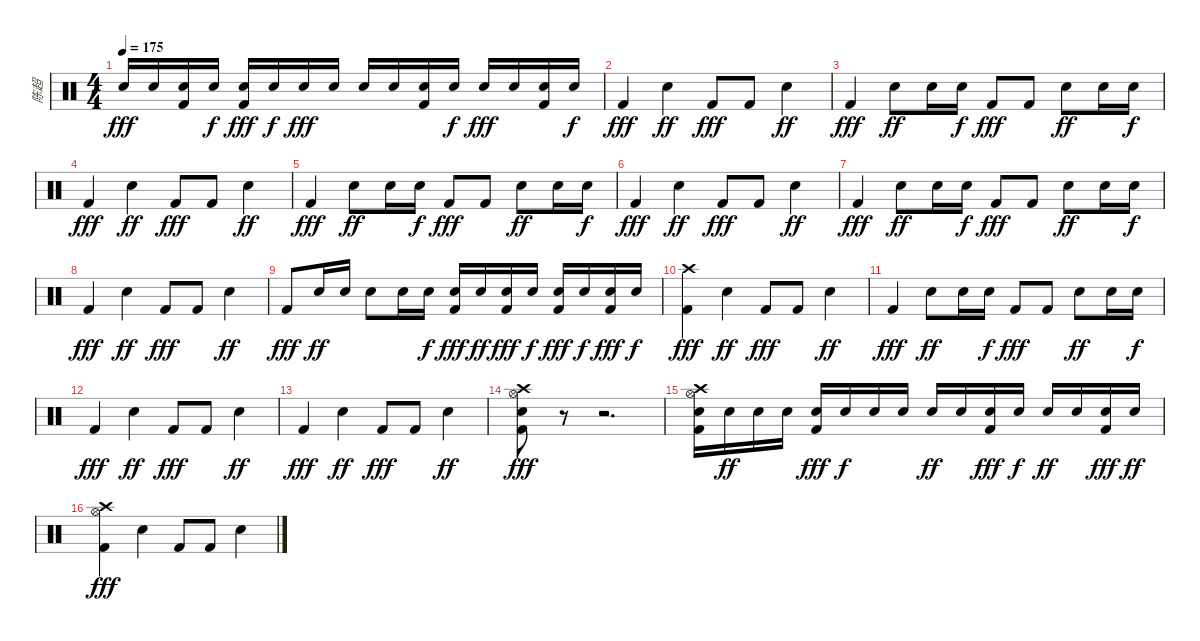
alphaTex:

\track ("陈超" "陈超") {instrument percussion}
\staff {score}
\articulation defaults
\ts (4 4)
\tempo 175
\clef neutral
\ks c "Electric Snare (hit)".16{dy fff} "Electric Snare (hit)".16
("Snare (hit) 2" "Kick (hit) 2").16 "Snare (hit) 2".16{dy f} ("Snare (hit) 2" "Kick (hit) 2").16{dy fff} "Snare (hit) 2".16{dy f} "Electric Snare (hit)".16{dy fff} "Electric Snare (hit)".16 "Electric Snare (hit)".16 "Electric Snare (hit)".16 ("Snare (hit) 2" "Kick (hit) 2").16 "Snare (hit) 2".16{dy f} "Electric Snare (hit)".16{dy fff} "Electric Snare (hit)".16 ("Snare (hit) 2" "Kick (hit) 2").16 "Snare (hit) 2".16{dy f} |
"Kick (hit) 2".4{dy fff} "Electric Snare (hit)".4{dy ff} "Kick (hit) 2".8{dy fff} "Kick (hit) 2".8 "Electric Snare (hit)".4{dy ff} |
"Kick (hit) 2".4{dy fff} "Electric Snare (hit)".8{dy ff} "Electric Snare (hit)".16 "Snare (hit) 2".16{dy f} "Kick (hit) 2".8{dy fff} "Kick (hit) 2".8 "Electric Snare (hit)".8{dy ff} "Electric Snare (hit)".16 "Snare (hit) 2".16{dy f} |
"Kick (hit) 2".4{dy fff} "Electric Snare (hit)".4{dy ff} "Kick (hit) 2".8{dy fff} "Kick (hit) 2".8 "Electric Snare (hit)".4{dy ff} |
"Kick (hit) 2".4{dy fff} "Electric Snare (hit)".8{dy ff} "Electric Snare (hit)".16 "Snare (hit) 2".16{dy f} "Kick (hit) 2".8{dy fff} "Kick (hit) 2".8 "Electric Snare (hit)".8{dy ff} "Electric Snare (hit)".16 "Snare (hit) 2".16{dy f} |
"Kick (hit) 2".4{dy fff} "Electric Snare (hit)".4{dy ff} "Kick (hit) 2".8{dy fff} "Kick (hit) 2".8 "Electric Snare (hit)".4{dy ff} |
"Kick (hit) 2".4{dy fff} "Electric Snare (hit)".8{dy ff} "Electric Snare (hit)".16 "Snare (hit) 2".16{dy f} "Kick (hit) 2".8{dy fff} "Kick (hit) 2".8 "Electric Snare (hit)".8{dy ff} "Electric Snare (hit)".16 "Snare (hit) 2".16{dy f} |
"Kick (hit) 2".4{dy fff} "Electric Snare (hit)".4{dy ff} "Kick (hit) 2".8{dy fff} "Kick (hit) 2".8 "Electric Snare (hit)".4{dy ff} |
"Kick (hit) 2".8{dy fff} "Electric Snare (hit)".16{dy ff} "Electric Snare (hit)".16 "Electric Snare (hit)".8 "Electric Snare (hit)".16 "Snare (hit) 2".16{dy f} ("Electric Snare (hit)" "Kick (hit) 2").16{dy fff} "Electric Snare (hit)".16{dy ff} ("Snare (hit) 2" "Kick (hit) 2").16{dy fff} "Snare (hit) 2".16{dy f} ("Snare (hit) 2" "Kick (hit) 2").16{dy fff} "Snare (hit) 2".16{dy f} ("Snare (hit) 2" "Kick (hit) 2").16{dy fff} "Snare (hit) 2".16{dy f} |
("Crash high (hit)" "Kick (hit) 2").4{dy fff} "Electric Snare (hit)".4{dy ff} "Kick (hit) 2".8{dy fff} "Kick (hit) 2".8 "Electric Snare (hit)".4{dy ff} |
"Kick (hit) 2".4{dy fff} "Electric Snare (hit)".8{dy ff} "Electric Snare (hit)".16 "Snare (hit) 2".16{dy f} "Kick (hit) 2".8{dy fff} "Kick (hit) 2".8 "Electric Snare (hit)".8{dy ff} "Electric Snare (hit)".16 "Snare (hit) 2".16{dy f} |
"Kick (hit) 2".4{dy fff} "Electric Snare (hit)".4{dy ff} "Kick (hit) 2".8{dy fff} "Kick (hit) 2".8 "Electric Snare (hit)".4{dy ff} |
"Kick (hit) 2".4{dy fff} "Electric Snare (hit)".4{dy ff} "Kick (hit) 2".8{dy fff} "Kick (hit) 2".8 "Electric Snare (hit)".4{dy ff} |
("Crash high (hit)" "Hi-Hat (open)" "Electric Snare (hit)" "Kick (hit) 2").8{dy fff} r.8 r.2{d} |
("Crash high (hit)" "Hi-Hat (open)" "Electric Snare (hit)" "Kick (hit) 2").16 "Electric Snare (hit)".16{dy ff} "Electric Snare (hit)".16 "Electric Snare (hit)".16 ("Snare (hit) 2" "Kick (hit) 2").16{dy fff} "Snare (hit) 2".16{dy f} "Snare (hit) 2".16 "Snare (hit) 2".16 "Electric Snare (hit)".16{dy ff} "Electric Snare (hit)".16 ("Snare (hit) 2" "Kick (hit) 2").16{dy fff} "Snare (hit) 2".16{dy f} "Electric Snare (hit)".16{dy ff} "Electric Snare (hit)".16 ("Electric Snare (hit)" "Kick (hit) 2").16{dy fff} "Electric Snare (hit)".16{dy ff} |
("Crash high (hit)" "Hi-Hat (open)" "Kick (hit) 2").4{dy fff} "Electric Snare (hit)".4 "Kick (hit) 2".8 "Kick (hit) 2".8 "Electric Snare (hit)".4
